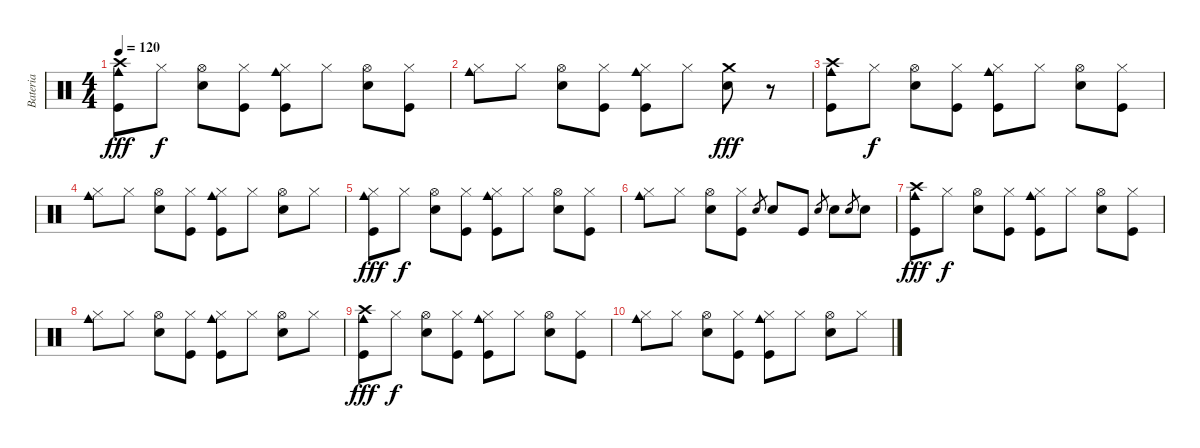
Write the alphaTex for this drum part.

\track ("Bateria" "Bateria") {instrument percussion}
\staff {score}
\articulation defaults
\ts (4 4)
\tempo 120
\clef neutral
\ks c
("Crash high (hit)" "Cowbell medium (hit)" "Kick (hit)").8{dy fff volume 6} "Hi-Hat (closed)".8{dy f} ("Hi-Hat (open)" "Electric Snare (hit)").8 ("Hi-Hat (closed)" "Kick (hit)").8 ("Hi-Hat (closed)" "Cowbell medium (hit)" "Kick (hit)").8 "Hi-Hat (closed)".8 ("Hi-Hat (open)" "Electric Snare (hit)").8 ("Hi-Hat (closed)" "Kick (hit)").8 |
("Hi-Hat (closed)" "Cowbell medium (hit)").8 "Hi-Hat (closed)".8 ("Hi-Hat (open)" "Electric Snare (hit)").8 ("Hi-Hat (closed)" "Kick (hit)").8 ("Hi-Hat (closed)" "Cowbell medium (hit)" "Kick (hit)").8 "Hi-Hat (closed)".8 ("Crash medium (hit)" "Electric Snare (hit)").8{dy fff} r.8 |
("Crash high (hit)" "Cowbell medium (hit)" "Kick (hit)").8 "Hi-Hat (closed)".8{dy f} ("Hi-Hat (open)" "Electric Snare (hit)").8 ("Hi-Hat (closed)" "Kick (hit)").8 ("Hi-Hat (closed)" "Cowbell medium (hit)" "Kick (hit)").8 "Hi-Hat (closed)".8 ("Hi-Hat (open)" "Electric Snare (hit)").8 ("Hi-Hat (closed)" "Kick (hit)").8 |
("Hi-Hat (closed)" "Cowbell medium (hit)").8 "Hi-Hat (closed)".8 ("Hi-Hat (open)" "Electric Snare (hit)").8 ("Hi-Hat (closed)" "Kick (hit)").8 ("Hi-Hat (closed)" "Cowbell medium (hit)" "Kick (hit)").8 "Hi-Hat (closed)".8 ("Hi-Hat (open)" "Electric Snare (hit)").8 "Hi-Hat (closed)".8 |
("Hi-Hat (closed)" "Cowbell medium (hit)" "Kick (hit)").8{dy fff volume 0} "Hi-Hat (closed)".8{dy f} ("Hi-Hat (open)" "Electric Snare (hit)").8 ("Hi-Hat (closed)" "Kick (hit)").8 ("Hi-Hat (closed)" "Cowbell medium (hit)" "Kick (hit)").8 "Hi-Hat (closed)".8 ("Hi-Hat (open)" "Electric Snare (hit)").8 ("Hi-Hat (closed)" "Kick (hit)").8 |
("Hi-Hat (closed)" "Cowbell medium (hit)").8 "Hi-Hat (closed)".8 ("Hi-Hat (open)" "Electric Snare (hit)").8 ("Hi-Hat (closed)" "Kick (hit)").8 "Electric Snare (hit)".8{gr} "Electric Snare (hit)".8 "Kick (hit)".8 "Electric Snare (hit)".8{gr} "Electric Snare (hit)".8 "Electric Snare (hit)".8{gr} "Electric Snare (hit)".8 |
("Crash high (hit)" "Cowbell medium (hit)" "Kick (hit)").8{dy fff} "Hi-Hat (closed)".8{dy f} ("Hi-Hat (open)" "Electric Snare (hit)").8 ("Hi-Hat (closed)" "Kick (hit)").8 ("Hi-Hat (closed)" "Cowbell medium (hit)" "Kick (hit)").8 "Hi-Hat (closed)".8 ("Hi-Hat (open)" "Electric Snare (hit)").8 ("Hi-Hat (closed)" "Kick (hit)").8 |
("Hi-Hat (closed)" "Cowbell medium (hit)").8 "Hi-Hat (closed)".8 ("Hi-Hat (open)" "Electric Snare (hit)").8 ("Hi-Hat (closed)" "Kick (hit)").8 ("Hi-Hat (closed)" "Cowbell medium (hit)" "Kick (hit)").8 "Hi-Hat (closed)".8 ("Hi-Hat (open)" "Electric Snare (hit)").8 "Hi-Hat (closed)".8 |
("Crash high (hit)" "Cowbell medium (hit)" "Kick (hit)").8{dy fff} "Hi-Hat (closed)".8{dy f} ("Hi-Hat (open)" "Electric Snare (hit)").8 ("Hi-Hat (closed)" "Kick (hit)").8 ("Hi-Hat (closed)" "Cowbell medium (hit)" "Kick (hit)").8 "Hi-Hat (closed)".8 ("Hi-Hat (open)" "Electric Snare (hit)").8 ("Hi-Hat (closed)" "Kick (hit)").8 |
("Hi-Hat (closed)" "Cowbell medium (hit)").8 "Hi-Hat (closed)".8 ("Hi-Hat (open)" "Electric Snare (hit)").8 ("Hi-Hat (closed)" "Kick (hit)").8 ("Hi-Hat (closed)" "Cowbell medium (hit)" "Kick (hit)").8 "Hi-Hat (closed)".8 ("Hi-Hat (open)" "Electric Snare (hit)").8 "Hi-Hat (closed)".8
